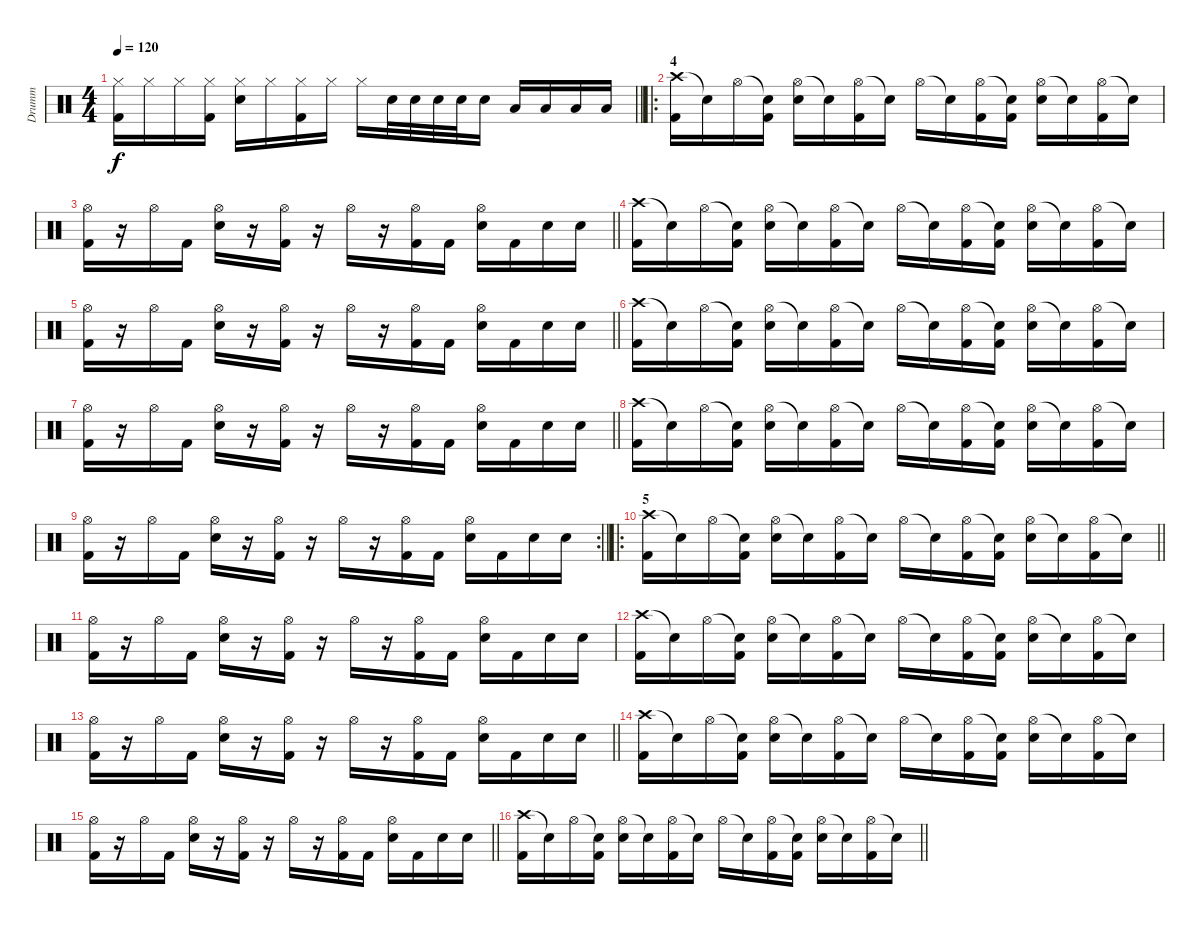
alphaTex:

\track ("Drumm" "Drumm") {instrument percussion}
\staff {score}
\articulation defaults
\ts (4 4)
\tempo 120
\clef neutral
\barLineRight lightlight
\ks c
("Hi-Hat (closed)" "Kick (hit) 2").16{dy f} "Hi-Hat (closed)".16 "Hi-Hat (closed)".16 ("Hi-Hat (closed)" "Kick (hit) 2").16 ("Hi-Hat (closed)" "Electric Snare (hit)").16 "Hi-Hat (closed)".16 ("Hi-Hat (closed)" "Kick (hit) 2").16 "Hi-Hat (closed)".16 "Hi-Hat (closed)".16 "Electric Snare (hit)".32 "Electric Snare (hit)".32 "Electric Snare (hit)".32 "Electric Snare (hit)".32 "Electric Snare (hit)".16 "Low Floor Tom (hit)".16 "Low Floor Tom (hit)".16 "Low Floor Tom (hit)".16 "Low Floor Tom (hit)".16 |
\ro
\section ("" "4")
("Crash high (hit)" "Kick (hit) 2").16 "Snare (hit)"{t}.16 "Hi-Hat (open)".16 ("Snare (hit)"{t} "Kick (hit) 2").16 ("Hi-Hat (open)" "Electric Snare (hit)").16 "Snare (hit)"{t}.16 ("Hi-Hat (open)" "Kick (hit) 2").16 "Snare (hit)"{t}.16 "Hi-Hat (open)".16 "Snare (hit)"{t}.16 ("Hi-Hat (open)" "Kick (hit) 2").16 ("Snare (hit)"{t} "Kick (hit) 2").16 ("Hi-Hat (open)" "Electric Snare (hit)").16 "Snare (hit)"{t}.16 ("Hi-Hat (open)" "Kick (hit) 2").16 "Snare (hit)"{t}.16 |
\barLineRight lightlight
("Hi-Hat (open)" "Kick (hit) 2").16 r.16 "Hi-Hat (open)".16 "Kick (hit) 2".16 ("Hi-Hat (open)" "Electric Snare (hit)").16 r.16 ("Hi-Hat (open)" "Kick (hit) 2").16 r.16 "Hi-Hat (open)".16 r.16 ("Hi-Hat (open)" "Kick (hit) 2").16 "Kick (hit) 2".16 ("Hi-Hat (open)" "Electric Snare (hit)").16 "Kick (hit) 2".16 "Electric Snare (hit)".16 "Electric Snare (hit)".16 |
("Crash high (hit)" "Kick (hit) 2").16 "Snare (hit)"{t}.16 "Hi-Hat (open)".16 ("Snare (hit)"{t} "Kick (hit) 2").16 ("Hi-Hat (open)" "Electric Snare (hit)").16 "Snare (hit)"{t}.16 ("Hi-Hat (open)" "Kick (hit) 2").16 "Snare (hit)"{t}.16 "Hi-Hat (open)".16 "Snare (hit)"{t}.16 ("Hi-Hat (open)" "Kick (hit) 2").16 ("Snare (hit)"{t} "Kick (hit) 2").16 ("Hi-Hat (open)" "Electric Snare (hit)").16 "Snare (hit)"{t}.16 ("Hi-Hat (open)" "Kick (hit) 2").16 "Snare (hit)"{t}.16 |
\barLineRight lightlight
("Hi-Hat (open)" "Kick (hit) 2").16 r.16 "Hi-Hat (open)".16 "Kick (hit) 2".16 ("Hi-Hat (open)" "Electric Snare (hit)").16 r.16 ("Hi-Hat (open)" "Kick (hit) 2").16 r.16 "Hi-Hat (open)".16 r.16 ("Hi-Hat (open)" "Kick (hit) 2").16 "Kick (hit) 2".16 ("Hi-Hat (open)" "Electric Snare (hit)").16 "Kick (hit) 2".16 "Electric Snare (hit)".16 "Electric Snare (hit)".16 |
("Crash high (hit)" "Kick (hit) 2").16 "Snare (hit)"{t}.16 "Hi-Hat (open)".16 ("Snare (hit)"{t} "Kick (hit) 2").16 ("Hi-Hat (open)" "Electric Snare (hit)").16 "Snare (hit)"{t}.16 ("Hi-Hat (open)" "Kick (hit) 2").16 "Snare (hit)"{t}.16 "Hi-Hat (open)".16 "Snare (hit)"{t}.16 ("Hi-Hat (open)" "Kick (hit) 2").16 ("Snare (hit)"{t} "Kick (hit) 2").16 ("Hi-Hat (open)" "Electric Snare (hit)").16 "Snare (hit)"{t}.16 ("Hi-Hat (open)" "Kick (hit) 2").16 "Snare (hit)"{t}.16 |
\barLineRight lightlight
("Hi-Hat (open)" "Kick (hit) 2").16 r.16 "Hi-Hat (open)".16 "Kick (hit) 2".16 ("Hi-Hat (open)" "Electric Snare (hit)").16 r.16 ("Hi-Hat (open)" "Kick (hit) 2").16 r.16 "Hi-Hat (open)".16 r.16 ("Hi-Hat (open)" "Kick (hit) 2").16 "Kick (hit) 2".16 ("Hi-Hat (open)" "Electric Snare (hit)").16 "Kick (hit) 2".16 "Electric Snare (hit)".16 "Electric Snare (hit)".16 |
("Crash high (hit)" "Kick (hit) 2").16 "Snare (hit)"{t}.16 "Hi-Hat (open)".16 ("Snare (hit)"{t} "Kick (hit) 2").16 ("Hi-Hat (open)" "Electric Snare (hit)").16 "Snare (hit)"{t}.16 ("Hi-Hat (open)" "Kick (hit) 2").16 "Snare (hit)"{t}.16 "Hi-Hat (open)".16 "Snare (hit)"{t}.16 ("Hi-Hat (open)" "Kick (hit) 2").16 ("Snare (hit)"{t} "Kick (hit) 2").16 ("Hi-Hat (open)" "Electric Snare (hit)").16 "Snare (hit)"{t}.16 ("Hi-Hat (open)" "Kick (hit) 2").16 "Snare (hit)"{t}.16 |
\rc 2
\barLineRight lightlight
("Hi-Hat (open)" "Kick (hit) 2").16 r.16 "Hi-Hat (open)".16 "Kick (hit) 2".16 ("Hi-Hat (open)" "Electric Snare (hit)").16 r.16 ("Hi-Hat (open)" "Kick (hit) 2").16 r.16 "Hi-Hat (open)".16 r.16 ("Hi-Hat (open)" "Kick (hit) 2").16 "Kick (hit) 2".16 ("Hi-Hat (open)" "Electric Snare (hit)").16 "Kick (hit) 2".16 "Electric Snare (hit)".16 "Electric Snare (hit)".16 |
\ro
\section ("" "5")
\barLineRight lightlight
("Crash high (hit)" "Kick (hit) 2").16 "Snare (hit)"{t}.16 "Hi-Hat (open)".16 ("Snare (hit)"{t} "Kick (hit) 2").16 ("Hi-Hat (open)" "Electric Snare (hit)").16 "Snare (hit)"{t}.16 ("Hi-Hat (open)" "Kick (hit) 2").16 "Snare (hit)"{t}.16 "Hi-Hat (open)".16 "Snare (hit)"{t}.16 ("Hi-Hat (open)" "Kick (hit) 2").16 ("Snare (hit)"{t} "Kick (hit) 2").16 ("Hi-Hat (open)" "Electric Snare (hit)").16 "Snare (hit)"{t}.16 ("Hi-Hat (open)" "Kick (hit) 2").16 "Snare (hit)"{t}.16 |
("Hi-Hat (open)" "Kick (hit) 2").16 r.16 "Hi-Hat (open)".16 "Kick (hit) 2".16 ("Hi-Hat (open)" "Electric Snare (hit)").16 r.16 ("Hi-Hat (open)" "Kick (hit) 2").16 r.16 "Hi-Hat (open)".16 r.16 ("Hi-Hat (open)" "Kick (hit) 2").16 "Kick (hit) 2".16 ("Hi-Hat (open)" "Electric Snare (hit)").16 "Kick (hit) 2".16 "Electric Snare (hit)".16 "Electric Snare (hit)".16 |
("Crash high (hit)" "Kick (hit) 2").16 "Snare (hit)"{t}.16 "Hi-Hat (open)".16 ("Snare (hit)"{t} "Kick (hit) 2").16 ("Hi-Hat (open)" "Electric Snare (hit)").16 "Snare (hit)"{t}.16 ("Hi-Hat (open)" "Kick (hit) 2").16 "Snare (hit)"{t}.16 "Hi-Hat (open)".16 "Snare (hit)"{t}.16 ("Hi-Hat (open)" "Kick (hit) 2").16 ("Snare (hit)"{t} "Kick (hit) 2").16 ("Hi-Hat (open)" "Electric Snare (hit)").16 "Snare (hit)"{t}.16 ("Hi-Hat (open)" "Kick (hit) 2").16 "Snare (hit)"{t}.16 |
\barLineRight lightlight
("Hi-Hat (open)" "Kick (hit) 2").16 r.16 "Hi-Hat (open)".16 "Kick (hit) 2".16 ("Hi-Hat (open)" "Electric Snare (hit)").16 r.16 ("Hi-Hat (open)" "Kick (hit) 2").16 r.16 "Hi-Hat (open)".16 r.16 ("Hi-Hat (open)" "Kick (hit) 2").16 "Kick (hit) 2".16 ("Hi-Hat (open)" "Electric Snare (hit)").16 "Kick (hit) 2".16 "Electric Snare (hit)".16 "Electric Snare (hit)".16 |
("Crash high (hit)" "Kick (hit) 2").16 "Snare (hit)"{t}.16 "Hi-Hat (open)".16 ("Snare (hit)"{t} "Kick (hit) 2").16 ("Hi-Hat (open)" "Electric Snare (hit)").16 "Snare (hit)"{t}.16 ("Hi-Hat (open)" "Kick (hit) 2").16 "Snare (hit)"{t}.16 "Hi-Hat (open)".16 "Snare (hit)"{t}.16 ("Hi-Hat (open)" "Kick (hit) 2").16 ("Snare (hit)"{t} "Kick (hit) 2").16 ("Hi-Hat (open)" "Electric Snare (hit)").16 "Snare (hit)"{t}.16 ("Hi-Hat (open)" "Kick (hit) 2").16 "Snare (hit)"{t}.16 |
\barLineRight lightlight
("Hi-Hat (open)" "Kick (hit) 2").16 r.16 "Hi-Hat (open)".16 "Kick (hit) 2".16 ("Hi-Hat (open)" "Electric Snare (hit)").16 r.16 ("Hi-Hat (open)" "Kick (hit) 2").16 r.16 "Hi-Hat (open)".16 r.16 ("Hi-Hat (open)" "Kick (hit) 2").16 "Kick (hit) 2".16 ("Hi-Hat (open)" "Electric Snare (hit)").16 "Kick (hit) 2".16 "Electric Snare (hit)".16 "Electric Snare (hit)".16 |
\barLineRight lightlight
("Crash high (hit)" "Kick (hit) 2").16 "Snare (hit)"{t}.16 "Hi-Hat (open)".16 ("Snare (hit)"{t} "Kick (hit) 2").16 ("Hi-Hat (open)" "Electric Snare (hit)").16 "Snare (hit)"{t}.16 ("Hi-Hat (open)" "Kick (hit) 2").16 "Snare (hit)"{t}.16 "Hi-Hat (open)".16 "Snare (hit)"{t}.16 ("Hi-Hat (open)" "Kick (hit) 2").16 ("Snare (hit)"{t} "Kick (hit) 2").16 ("Hi-Hat (open)" "Electric Snare (hit)").16 "Snare (hit)"{t}.16 ("Hi-Hat (open)" "Kick (hit) 2").16 "Snare (hit)"{t}.16
